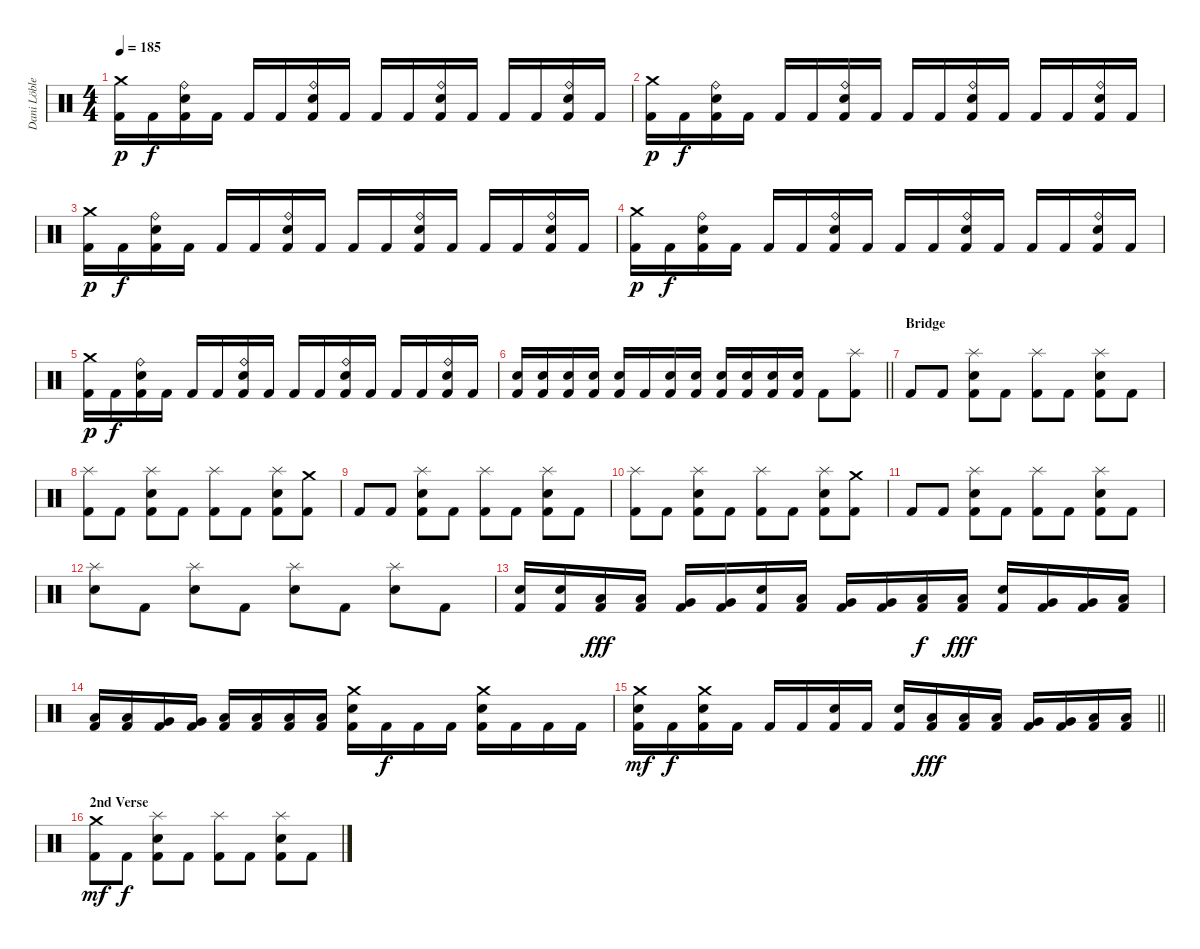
\track ("Dani Löble" "Dani Löble") {instrument percussion}
\staff {score}
\articulation defaults
\ts (4 4)
\tempo 185
\clef neutral
\ks c
("Crash medium (hit)" "Kick (hit) 2").16{dy p} "Kick (hit) 2".16{dy f} ("Ride (bell)" "Electric Snare (hit)" "Kick (hit) 2").16 "Kick (hit) 2".16 "Kick (hit) 2".16 "Kick (hit) 2".16 ("Ride (bell)" "Electric Snare (hit)" "Kick (hit) 2").16 "Kick (hit) 2".16 "Kick (hit) 2".16 "Kick (hit) 2".16 ("Ride (bell)" "Electric Snare (hit)" "Kick (hit) 2").16 "Kick (hit) 2".16 "Kick (hit) 2".16 "Kick (hit) 2".16 ("Ride (bell)" "Electric Snare (hit)" "Kick (hit) 2").16 "Kick (hit) 2".16 |
("Crash medium (hit)" "Kick (hit) 2").16{dy p} "Kick (hit) 2".16{dy f} ("Ride (bell)" "Electric Snare (hit)" "Kick (hit) 2").16 "Kick (hit) 2".16 "Kick (hit) 2".16 "Kick (hit) 2".16 ("Ride (bell)" "Electric Snare (hit)" "Kick (hit) 2").16 "Kick (hit) 2".16 "Kick (hit) 2".16 "Kick (hit) 2".16 ("Ride (bell)" "Electric Snare (hit)" "Kick (hit) 2").16 "Kick (hit) 2".16 "Kick (hit) 2".16 "Kick (hit) 2".16 ("Ride (bell)" "Electric Snare (hit)" "Kick (hit) 2").16 "Kick (hit) 2".16 |
("Crash medium (hit)" "Kick (hit) 2").16{dy p} "Kick (hit) 2".16{dy f} ("Ride (bell)" "Electric Snare (hit)" "Kick (hit) 2").16 "Kick (hit) 2".16 "Kick (hit) 2".16 "Kick (hit) 2".16 ("Ride (bell)" "Electric Snare (hit)" "Kick (hit) 2").16 "Kick (hit) 2".16 "Kick (hit) 2".16 "Kick (hit) 2".16 ("Ride (bell)" "Electric Snare (hit)" "Kick (hit) 2").16 "Kick (hit) 2".16 "Kick (hit) 2".16 "Kick (hit) 2".16 ("Ride (bell)" "Electric Snare (hit)" "Kick (hit) 2").16 "Kick (hit) 2".16 |
("Crash medium (hit)" "Kick (hit) 2").16{dy p} "Kick (hit) 2".16{dy f} ("Ride (bell)" "Electric Snare (hit)" "Kick (hit) 2").16 "Kick (hit) 2".16 "Kick (hit) 2".16 "Kick (hit) 2".16 ("Ride (bell)" "Electric Snare (hit)" "Kick (hit) 2").16 "Kick (hit) 2".16 "Kick (hit) 2".16 "Kick (hit) 2".16 ("Ride (bell)" "Electric Snare (hit)" "Kick (hit) 2").16 "Kick (hit) 2".16 "Kick (hit) 2".16 "Kick (hit) 2".16 ("Ride (bell)" "Electric Snare (hit)" "Kick (hit) 2").16 "Kick (hit) 2".16 |
("Crash medium (hit)" "Kick (hit) 2").16{dy p} "Kick (hit) 2".16{dy f} ("Ride (bell)" "Electric Snare (hit)" "Kick (hit) 2").16 "Kick (hit) 2".16 "Kick (hit) 2".16 "Kick (hit) 2".16 ("Ride (bell)" "Electric Snare (hit)" "Kick (hit) 2").16 "Kick (hit) 2".16 "Kick (hit) 2".16 "Kick (hit) 2".16 ("Ride (bell)" "Electric Snare (hit)" "Kick (hit) 2").16 "Kick (hit) 2".16 "Kick (hit) 2".16 "Kick (hit) 2".16 ("Ride (bell)" "Electric Snare (hit)" "Kick (hit) 2").16 "Kick (hit) 2".16 |
\barLineRight lightlight
("Electric Snare (hit)" "Kick (hit) 2").16 ("Electric Snare (hit)" "Kick (hit) 2").16 ("Electric Snare (hit)" "Kick (hit) 2").16 ("Electric Snare (hit)" "Kick (hit) 2").16 ("Electric Snare (hit)" "Kick (hit) 2").16 "Kick (hit) 2".16 ("Electric Snare (hit)" "Kick (hit) 2").16 ("Electric Snare (hit)" "Kick (hit) 2").16 ("Electric Snare (hit)" "Kick (hit) 2").16 ("Electric Snare (hit)" "Kick (hit) 2").16 ("Electric Snare (hit)" "Kick (hit) 2").16 ("Electric Snare (hit)" "Kick (hit) 2").16 "Kick (hit) 2".8 ("Splash (hit)" "Kick (hit) 2").8 |
\section ("" "Bridge")
"Kick (hit) 2".8 "Kick (hit) 2".8 ("Splash (hit)" "Electric Snare (hit)" "Kick (hit) 2").8 "Kick (hit) 2".8 ("Splash (hit)" "Kick (hit) 2").8 "Kick (hit) 2".8 ("Splash (hit)" "Electric Snare (hit)" "Kick (hit) 2").8 "Kick (hit) 2".8 |
("Splash (hit)" "Kick (hit) 2").8 "Kick (hit) 2".8 ("Splash (hit)" "Electric Snare (hit)" "Kick (hit) 2").8 "Kick (hit) 2".8 ("Splash (hit)" "Kick (hit) 2").8 "Kick (hit) 2".8 ("Splash (hit)" "Electric Snare (hit)" "Kick (hit) 2").8 ("Crash medium (hit)" "Kick (hit) 2").8 |
"Kick (hit) 2".8 "Kick (hit) 2".8 ("Splash (hit)" "Electric Snare (hit)" "Kick (hit) 2").8 "Kick (hit) 2".8 ("Splash (hit)" "Kick (hit) 2").8 "Kick (hit) 2".8 ("Splash (hit)" "Electric Snare (hit)" "Kick (hit) 2").8 "Kick (hit) 2".8 |
("Splash (hit)" "Kick (hit) 2").8 "Kick (hit) 2".8 ("Splash (hit)" "Electric Snare (hit)" "Kick (hit) 2").8 "Kick (hit) 2".8 ("Splash (hit)" "Kick (hit) 2").8 "Kick (hit) 2".8 ("Splash (hit)" "Electric Snare (hit)" "Kick (hit) 2").8 ("Crash medium (hit)" "Kick (hit) 2").8 |
"Kick (hit) 2".8 "Kick (hit) 2".8 ("Splash (hit)" "Electric Snare (hit)" "Kick (hit) 2").8 "Kick (hit) 2".8 ("Splash (hit)" "Kick (hit) 2").8 "Kick (hit) 2".8 ("Splash (hit)" "Electric Snare (hit)" "Kick (hit) 2").8 "Kick (hit) 2".8 |
("Splash (hit)" "Electric Snare (hit)").8 "Kick (hit) 2".8 ("Splash (hit)" "Electric Snare (hit)").8 "Kick (hit) 2".8 ("Splash (hit)" "Electric Snare (hit)").8 "Kick (hit) 2".8 ("Splash (hit)" "Electric Snare (hit)").8 "Kick (hit) 2".8 |
("Electric Snare (hit)" "Kick (hit) 2").16 ("Electric Snare (hit)" "Kick (hit) 2").16 ("Low Tom (hit)" "Kick (hit) 2").16{dy fff} ("Low Tom (hit)" "Kick (hit) 2").16 ("Very Low Tom (hit)" "Kick (hit) 2").16 ("Very Low Tom (hit)" "Kick (hit) 2").16 ("Electric Snare (hit)" "Kick (hit) 2").16 ("Low Tom (hit)" "Kick (hit) 2").16 ("Very Low Tom (hit)" "Kick (hit) 2").16 ("Very Low Tom (hit)" "Kick (hit) 2").16 ("Low Floor Tom (hit)" "Kick (hit) 2").16{dy f} ("Low Tom (hit)" "Kick (hit) 2").16{dy fff} ("Electric Snare (hit)" "Kick (hit) 2").16 ("Very Low Tom (hit)" "Kick (hit) 2").16 ("Very Low Tom (hit)" "Kick (hit) 2").16 ("Low Floor Tom (hit)" "Kick (hit) 2").16 |
("Low Tom (hit)" "Kick (hit) 2").16 ("Low Tom (hit)" "Kick (hit) 2").16 ("Very Low Tom (hit)" "Kick (hit) 2").16 ("Very Low Tom (hit)" "Kick (hit) 2").16 ("Low Floor Tom (hit)" "Kick (hit) 2").16 ("Low Floor Tom (hit)" "Kick (hit) 2").16 ("Low Floor Tom (hit)" "Kick (hit) 2").16 ("Low Floor Tom (hit)" "Kick (hit) 2").16 ("Crash medium (hit)" "Electric Snare (hit)" "Kick (hit) 2").16 "Kick (hit) 2".16{dy f} "Kick (hit) 2".16 "Kick (hit) 2".16 ("Crash medium (hit)" "Electric Snare (hit)" "Kick (hit) 2").16 "Kick (hit) 2".16 "Kick (hit) 2".16 "Kick (hit) 2".16 |
\barLineRight lightlight
("Crash medium (hit)" "Electric Snare (hit)" "Kick (hit) 2").16{dy mf} "Kick (hit) 2".16{dy f} ("Crash medium (hit)" "Electric Snare (hit)" "Kick (hit) 2").16 "Kick (hit) 2".16 "Kick (hit) 2".16 "Kick (hit) 2".16 ("Electric Snare (hit)" "Kick (hit) 2").16 "Kick (hit) 2".16 ("Electric Snare (hit)" "Kick (hit) 2").16 ("Low Tom (hit)" "Kick (hit) 2").16{dy fff} ("Low Tom (hit)" "Kick (hit) 2").16 ("Low Tom (hit)" "Kick (hit) 2").16 ("Very Low Tom (hit)" "Kick (hit) 2").16 ("Very Low Tom (hit)" "Kick (hit) 2").16 ("Low Floor Tom (hit)" "Kick (hit) 2").16 ("Low Floor Tom (hit)" "Kick (hit) 2").16 |
\section ("" "2nd Verse")
("Crash medium (hit)" "Kick (hit) 2").8{dy mf} "Kick (hit) 2".8{dy f} ("Splash (hit)" "Electric Snare (hit)" "Kick (hit) 2").8 "Kick (hit) 2".8 ("Splash (hit)" "Kick (hit) 2").8 "Kick (hit) 2".8 ("Splash (hit)" "Electric Snare (hit)" "Kick (hit) 2").8 "Kick (hit) 2".8
